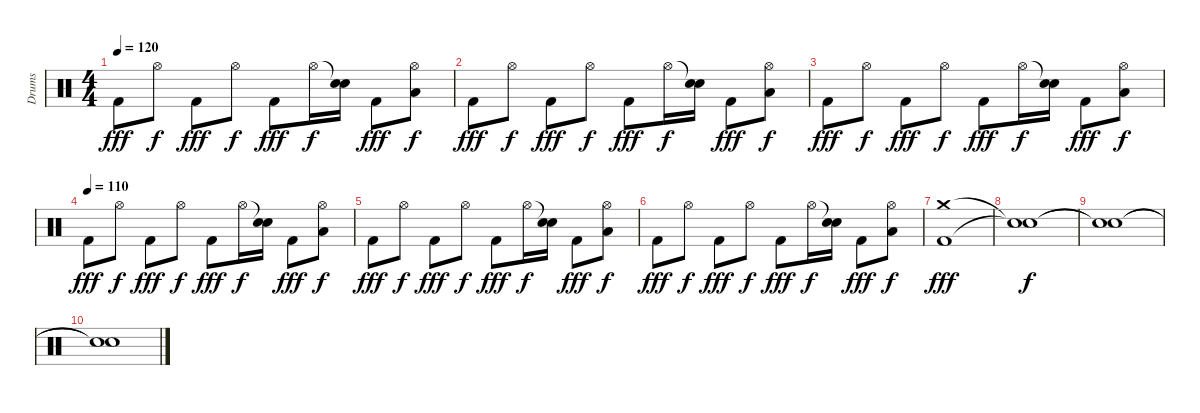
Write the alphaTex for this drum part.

\track ("Drums" "Drums") {instrument percussion}
\staff {score}
\articulation defaults
\ts (4 4)
\tempo 120
\clef neutral
\ks c "Kick (hit) 2".8{dy fff} "Hi-Hat (open)".8{dy f} "Kick (hit) 2".8{dy fff} "Hi-Hat (open)".8{dy f} "Kick (hit) 2".8{dy fff} "Hi-Hat (open)".16{dy f}
("Snare (hit)"{t} "Snare (hit) 2").16 "Kick (hit) 2".8{dy fff} ("Hi-Hat (open)" "Low Tom (hit)").8{dy f} |
"Kick (hit) 2".8{dy fff} "Hi-Hat (open)".8{dy f} "Kick (hit) 2".8{dy fff} "Hi-Hat (open)".8{dy f} "Kick (hit) 2".8{dy fff} "Hi-Hat (open)".16{dy f} ("Snare (hit)"{t} "Snare (hit) 2").16 "Kick (hit) 2".8{dy fff} ("Hi-Hat (open)" "Low Tom (hit)").8{dy f} |
"Kick (hit) 2".8{dy fff} "Hi-Hat (open)".8{dy f} "Kick (hit) 2".8{dy fff} "Hi-Hat (open)".8{dy f} "Kick (hit) 2".8{dy fff} "Hi-Hat (open)".16{dy f} ("Snare (hit)"{t} "Snare (hit) 2").16 "Kick (hit) 2".8{dy fff} ("Hi-Hat (open)" "Low Tom (hit)").8{dy f} |
\tempo (110)
"Kick (hit) 2".8{dy fff} "Hi-Hat (open)".8{dy f} "Kick (hit) 2".8{dy fff} "Hi-Hat (open)".8{dy f} "Kick (hit) 2".8{dy fff} "Hi-Hat (open)".16{dy f} ("Snare (hit)"{t} "Snare (hit) 2").16 "Kick (hit) 2".8{dy fff} ("Hi-Hat (open)" "Low Tom (hit)").8{dy f} |
"Kick (hit) 2".8{dy fff} "Hi-Hat (open)".8{dy f} "Kick (hit) 2".8{dy fff} "Hi-Hat (open)".8{dy f} "Kick (hit) 2".8{dy fff} "Hi-Hat (open)".16{dy f} ("Snare (hit)"{t} "Snare (hit) 2").16 "Kick (hit) 2".8{dy fff} ("Hi-Hat (open)" "Low Tom (hit)").8{dy f} |
"Kick (hit) 2".8{dy fff} "Hi-Hat (open)".8{dy f} "Kick (hit) 2".8{dy fff} "Hi-Hat (open)".8{dy f} "Kick (hit) 2".8{dy fff} "Hi-Hat (open)".16{dy f} ("Snare (hit)"{t} "Snare (hit) 2").16 "Kick (hit) 2".8{dy fff} ("Hi-Hat (open)" "Low Tom (hit)").8{dy f} |
("Crash medium (hit)" "Kick (hit) 2").1{dy fff} |
("Snare (hit)"{t} "Snare (hit)"{t}).1{dy f} |
("Snare (hit)"{t} "Snare (hit)"{t}).1 |
("Snare (hit)"{t} "Snare (hit)"{t}).1
